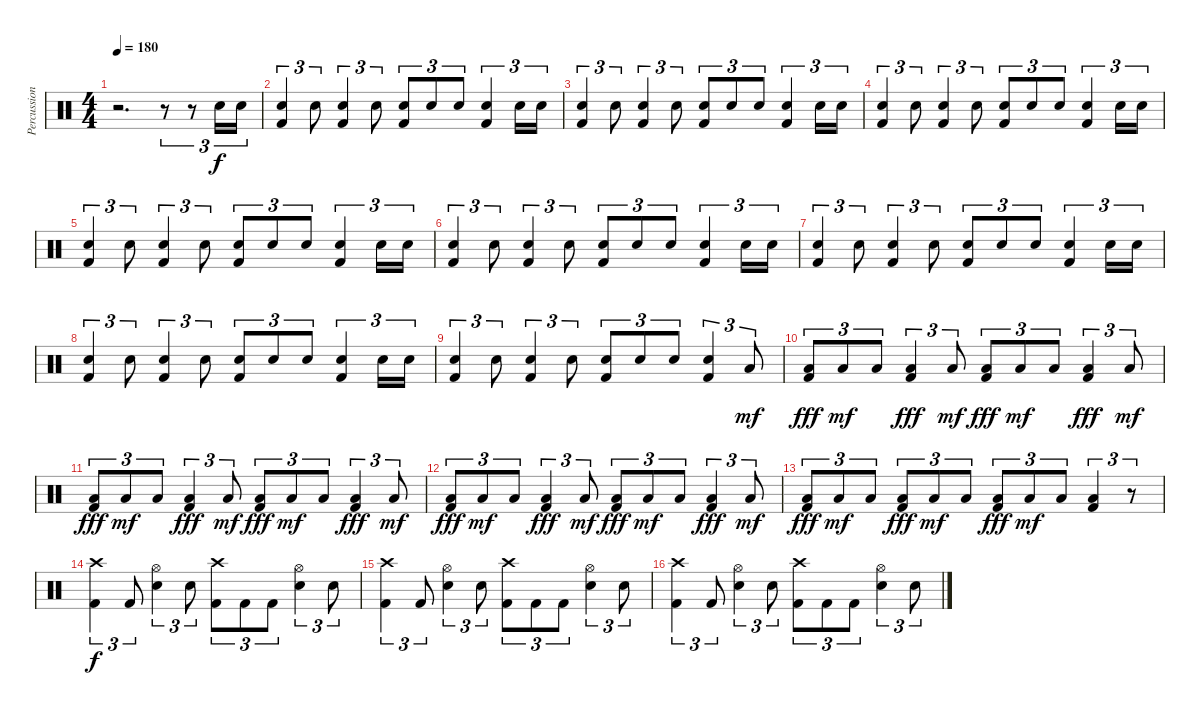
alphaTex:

\track ("Percussion" "Percussion") {instrument percussion}
\staff {score}
\articulation defaults
\ts (4 4)
\tempo 180
\clef neutral
\ks c
r.2{d dy f} r.8{tu (3 2)} r.8{tu (3 2)} "Electric Snare (hit)".16{tu (3 2)} "Electric Snare (hit)".16{tu (3 2)} |
("Electric Snare (hit)" "Kick (hit) 2").4{tu (3 2)} "Electric Snare (hit)".8{tu (3 2)} ("Electric Snare (hit)" "Kick (hit) 2").4{tu (3 2)} "Electric Snare (hit)".8{tu (3 2)} ("Electric Snare (hit)" "Kick (hit) 2").8{tu (3 2)} "Electric Snare (hit)".8{tu (3 2)} "Electric Snare (hit)".8{tu (3 2)} ("Electric Snare (hit)" "Kick (hit) 2").4{tu (3 2)} "Electric Snare (hit)".16{tu (3 2)} "Electric Snare (hit)".16{tu (3 2)} |
("Electric Snare (hit)" "Kick (hit) 2").4{tu (3 2)} "Electric Snare (hit)".8{tu (3 2)} ("Electric Snare (hit)" "Kick (hit) 2").4{tu (3 2)} "Electric Snare (hit)".8{tu (3 2)} ("Electric Snare (hit)" "Kick (hit) 2").8{tu (3 2)} "Electric Snare (hit)".8{tu (3 2)} "Electric Snare (hit)".8{tu (3 2)} ("Electric Snare (hit)" "Kick (hit) 2").4{tu (3 2)} "Electric Snare (hit)".16{tu (3 2)} "Electric Snare (hit)".16{tu (3 2)} |
("Electric Snare (hit)" "Kick (hit) 2").4{tu (3 2)} "Electric Snare (hit)".8{tu (3 2)} ("Electric Snare (hit)" "Kick (hit) 2").4{tu (3 2)} "Electric Snare (hit)".8{tu (3 2)} ("Electric Snare (hit)" "Kick (hit) 2").8{tu (3 2)} "Electric Snare (hit)".8{tu (3 2)} "Electric Snare (hit)".8{tu (3 2)} ("Electric Snare (hit)" "Kick (hit) 2").4{tu (3 2)} "Electric Snare (hit)".16{tu (3 2)} "Electric Snare (hit)".16{tu (3 2)} |
("Electric Snare (hit)" "Kick (hit) 2").4{tu (3 2)} "Electric Snare (hit)".8{tu (3 2)} ("Electric Snare (hit)" "Kick (hit) 2").4{tu (3 2)} "Electric Snare (hit)".8{tu (3 2)} ("Electric Snare (hit)" "Kick (hit) 2").8{tu (3 2)} "Electric Snare (hit)".8{tu (3 2)} "Electric Snare (hit)".8{tu (3 2)} ("Electric Snare (hit)" "Kick (hit) 2").4{tu (3 2)} "Electric Snare (hit)".16{tu (3 2)} "Electric Snare (hit)".16{tu (3 2)} |
("Electric Snare (hit)" "Kick (hit) 2").4{tu (3 2)} "Electric Snare (hit)".8{tu (3 2)} ("Electric Snare (hit)" "Kick (hit) 2").4{tu (3 2)} "Electric Snare (hit)".8{tu (3 2)} ("Electric Snare (hit)" "Kick (hit) 2").8{tu (3 2)} "Electric Snare (hit)".8{tu (3 2)} "Electric Snare (hit)".8{tu (3 2)} ("Electric Snare (hit)" "Kick (hit) 2").4{tu (3 2)} "Electric Snare (hit)".16{tu (3 2)} "Electric Snare (hit)".16{tu (3 2)} |
("Electric Snare (hit)" "Kick (hit) 2").4{tu (3 2)} "Electric Snare (hit)".8{tu (3 2)} ("Electric Snare (hit)" "Kick (hit) 2").4{tu (3 2)} "Electric Snare (hit)".8{tu (3 2)} ("Electric Snare (hit)" "Kick (hit) 2").8{tu (3 2)} "Electric Snare (hit)".8{tu (3 2)} "Electric Snare (hit)".8{tu (3 2)} ("Electric Snare (hit)" "Kick (hit) 2").4{tu (3 2)} "Electric Snare (hit)".16{tu (3 2)} "Electric Snare (hit)".16{tu (3 2)} |
("Electric Snare (hit)" "Kick (hit) 2").4{tu (3 2)} "Electric Snare (hit)".8{tu (3 2)} ("Electric Snare (hit)" "Kick (hit) 2").4{tu (3 2)} "Electric Snare (hit)".8{tu (3 2)} ("Electric Snare (hit)" "Kick (hit) 2").8{tu (3 2)} "Electric Snare (hit)".8{tu (3 2)} "Electric Snare (hit)".8{tu (3 2)} ("Electric Snare (hit)" "Kick (hit) 2").4{tu (3 2)} "Electric Snare (hit)".16{tu (3 2)} "Electric Snare (hit)".16{tu (3 2)} |
("Electric Snare (hit)" "Kick (hit) 2").4{tu (3 2)} "Electric Snare (hit)".8{tu (3 2)} ("Electric Snare (hit)" "Kick (hit) 2").4{tu (3 2)} "Electric Snare (hit)".8{tu (3 2)} ("Electric Snare (hit)" "Kick (hit) 2").8{tu (3 2)} "Electric Snare (hit)".8{tu (3 2)} "Electric Snare (hit)".8{tu (3 2)} ("Electric Snare (hit)" "Kick (hit) 2").4{tu (3 2)} "Low Floor Tom (hit)".8{tu (3 2) dy mf} |
("Low Floor Tom (hit)" "Kick (hit) 2").8{tu (3 2) dy fff} "Low Floor Tom (hit)".8{tu (3 2) dy mf} "Low Floor Tom (hit)".8{tu (3 2)} ("Low Floor Tom (hit)" "Kick (hit) 2").4{tu (3 2) dy fff} "Low Floor Tom (hit)".8{tu (3 2) dy mf} ("Low Floor Tom (hit)" "Kick (hit) 2").8{tu (3 2) dy fff} "Low Floor Tom (hit)".8{tu (3 2) dy mf} "Low Floor Tom (hit)".8{tu (3 2)} ("Low Floor Tom (hit)" "Kick (hit) 2").4{tu (3 2) dy fff} "Low Floor Tom (hit)".8{tu (3 2) dy mf} |
("Low Floor Tom (hit)" "Kick (hit) 2").8{tu (3 2) dy fff} "Low Floor Tom (hit)".8{tu (3 2) dy mf} "Low Floor Tom (hit)".8{tu (3 2)} ("Low Floor Tom (hit)" "Kick (hit) 2").4{tu (3 2) dy fff} "Low Floor Tom (hit)".8{tu (3 2) dy mf} ("Low Floor Tom (hit)" "Kick (hit) 2").8{tu (3 2) dy fff} "Low Floor Tom (hit)".8{tu (3 2) dy mf} "Low Floor Tom (hit)".8{tu (3 2)} ("Low Floor Tom (hit)" "Kick (hit) 2").4{tu (3 2) dy fff} "Low Floor Tom (hit)".8{tu (3 2) dy mf} |
("Low Floor Tom (hit)" "Kick (hit) 2").8{tu (3 2) dy fff} "Low Floor Tom (hit)".8{tu (3 2) dy mf} "Low Floor Tom (hit)".8{tu (3 2)} ("Low Floor Tom (hit)" "Kick (hit) 2").4{tu (3 2) dy fff} "Low Floor Tom (hit)".8{tu (3 2) dy mf} ("Low Floor Tom (hit)" "Kick (hit) 2").8{tu (3 2) dy fff} "Low Floor Tom (hit)".8{tu (3 2) dy mf} "Low Floor Tom (hit)".8{tu (3 2)} ("Low Floor Tom (hit)" "Kick (hit) 2").4{tu (3 2) dy fff} "Low Floor Tom (hit)".8{tu (3 2) dy mf} |
("Low Floor Tom (hit)" "Kick (hit) 2").8{tu (3 2) dy fff} "Low Floor Tom (hit)".8{tu (3 2) dy mf} "Low Floor Tom (hit)".8{tu (3 2)} ("Low Floor Tom (hit)" "Kick (hit) 2").8{tu (3 2) dy fff} "Low Floor Tom (hit)".8{tu (3 2) dy mf} "Low Floor Tom (hit)".8{tu (3 2)} ("Low Floor Tom (hit)" "Kick (hit) 2").8{tu (3 2) dy fff} "Low Floor Tom (hit)".8{tu (3 2) dy mf} "Low Floor Tom (hit)".8{tu (3 2)} ("Low Floor Tom (hit)" "Kick (hit) 2").4{tu (3 2)} r.8{tu (3 2)} |
("Crash high (hit)" "Kick (hit) 2").4{tu (3 2) dy f} "Kick (hit) 2".8{tu (3 2)} ("Hi-Hat (open)" "Electric Snare (hit)").4{tu (3 2)} "Electric Snare (hit)".8{tu (3 2)} ("Crash high (hit)" "Kick (hit) 2").8{tu (3 2)} "Kick (hit) 2".8{tu (3 2)} "Kick (hit) 2".8{tu (3 2)} ("Hi-Hat (open)" "Electric Snare (hit)").4{tu (3 2)} "Electric Snare (hit)".8{tu (3 2)} |
("Crash high (hit)" "Kick (hit) 2").4{tu (3 2)} "Kick (hit) 2".8{tu (3 2)} ("Hi-Hat (open)" "Electric Snare (hit)").4{tu (3 2)} "Electric Snare (hit)".8{tu (3 2)} ("Crash high (hit)" "Kick (hit) 2").8{tu (3 2)} "Kick (hit) 2".8{tu (3 2)} "Kick (hit) 2".8{tu (3 2)} ("Hi-Hat (open)" "Electric Snare (hit)").4{tu (3 2)} "Electric Snare (hit)".8{tu (3 2)} |
("Crash high (hit)" "Kick (hit) 2").4{tu (3 2)} "Kick (hit) 2".8{tu (3 2)} ("Hi-Hat (open)" "Electric Snare (hit)").4{tu (3 2)} "Electric Snare (hit)".8{tu (3 2)} ("Crash high (hit)" "Kick (hit) 2").8{tu (3 2)} "Kick (hit) 2".8{tu (3 2)} "Kick (hit) 2".8{tu (3 2)} ("Hi-Hat (open)" "Electric Snare (hit)").4{tu (3 2)} "Electric Snare (hit)".8{tu (3 2)}
